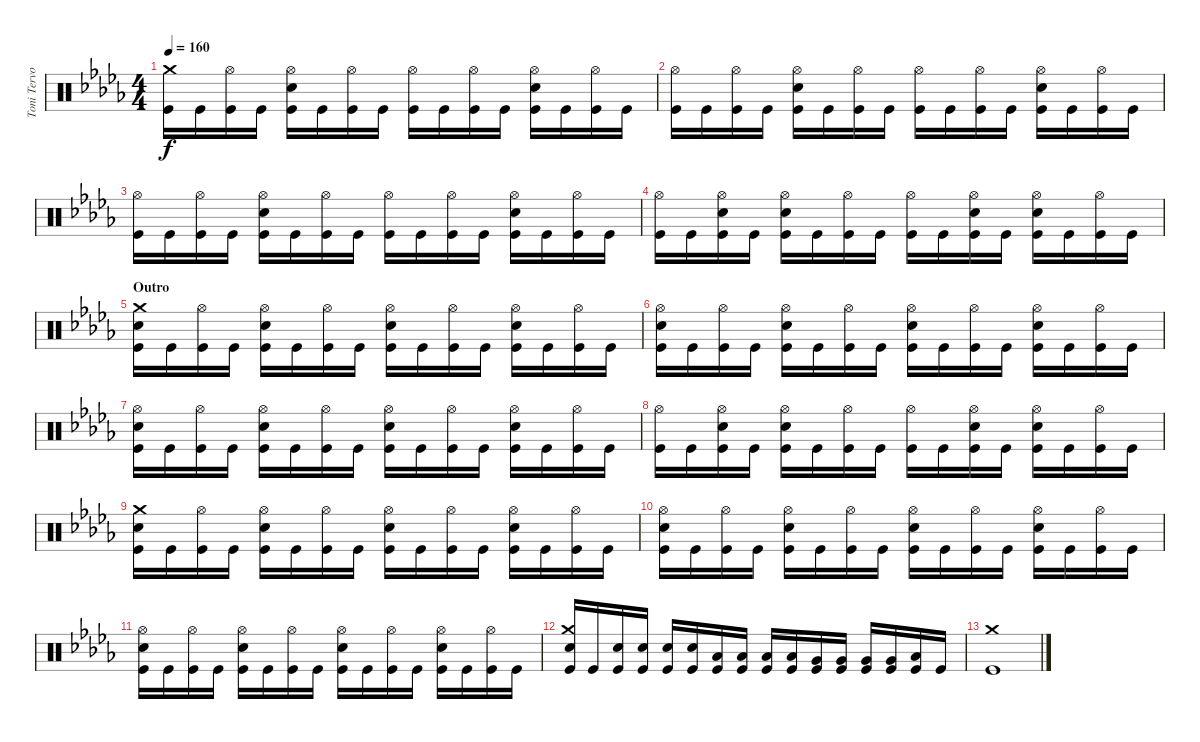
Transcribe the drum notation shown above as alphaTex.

\track ("Toni Tervo (drums)" "Toni Tervo") {instrument percussion}
\staff {score}
\articulation defaults
\ts (4 4)
\tempo 160
\clef neutral
\ks bbminor
("Kick (hit)" "Crash medium (hit)").16{dy f} "Kick (hit)".16 ("Hi-Hat (open)" "Kick (hit)").16 "Kick (hit)".16 ("Hi-Hat (open)" "Kick (hit)" "Snare (hit) 2").16 "Kick (hit)".16 ("Hi-Hat (open)" "Kick (hit)").16 "Kick (hit)".16 ("Hi-Hat (open)" "Kick (hit)").16 "Kick (hit)".16 ("Hi-Hat (open)" "Kick (hit)").16 "Kick (hit)".16 ("Hi-Hat (open)" "Kick (hit)" "Snare (hit) 2").16 "Kick (hit)".16 ("Hi-Hat (open)" "Kick (hit)").16 "Kick (hit)".16 |
("Hi-Hat (open)" "Kick (hit)").16 "Kick (hit)".16 ("Hi-Hat (open)" "Kick (hit)").16 "Kick (hit)".16 ("Hi-Hat (open)" "Kick (hit)" "Snare (hit) 2").16 "Kick (hit)".16 ("Hi-Hat (open)" "Kick (hit)").16 "Kick (hit)".16 ("Hi-Hat (open)" "Kick (hit)").16 "Kick (hit)".16 ("Hi-Hat (open)" "Kick (hit)").16 "Kick (hit)".16 ("Hi-Hat (open)" "Kick (hit)" "Snare (hit) 2").16 "Kick (hit)".16 ("Hi-Hat (open)" "Kick (hit)").16 "Kick (hit)".16 |
("Hi-Hat (open)" "Kick (hit)").16 "Kick (hit)".16 ("Hi-Hat (open)" "Kick (hit)").16 "Kick (hit)".16 ("Hi-Hat (open)" "Kick (hit)" "Snare (hit) 2").16 "Kick (hit)".16 ("Hi-Hat (open)" "Kick (hit)").16 "Kick (hit)".16 ("Hi-Hat (open)" "Kick (hit)").16 "Kick (hit)".16 ("Hi-Hat (open)" "Kick (hit)").16 "Kick (hit)".16 ("Hi-Hat (open)" "Kick (hit)" "Snare (hit) 2").16 "Kick (hit)".16 ("Hi-Hat (open)" "Kick (hit)").16 "Kick (hit)".16 |
("Hi-Hat (open)" "Kick (hit)").16 "Kick (hit)".16 ("Hi-Hat (open)" "Kick (hit)" "Snare (hit) 2").16 "Kick (hit)".16 ("Hi-Hat (open)" "Kick (hit)" "Snare (hit) 2").16 "Kick (hit)".16 ("Hi-Hat (open)" "Kick (hit)").16 "Kick (hit)".16 ("Hi-Hat (open)" "Kick (hit)").16 "Kick (hit)".16 ("Hi-Hat (open)" "Kick (hit)" "Snare (hit) 2").16 "Kick (hit)".16 ("Hi-Hat (open)" "Kick (hit)" "Snare (hit) 2").16 "Kick (hit)".16 ("Hi-Hat (open)" "Kick (hit)").16 "Kick (hit)".16 |
\section ("" "Outro")
("Kick (hit)" "Crash medium (hit)" "Snare (hit) 2").16 "Kick (hit)".16 ("Hi-Hat (open)" "Kick (hit)").16 "Kick (hit)".16 ("Hi-Hat (open)" "Kick (hit)" "Snare (hit) 2").16 "Kick (hit)".16 ("Hi-Hat (open)" "Kick (hit)").16 "Kick (hit)".16 ("Hi-Hat (open)" "Kick (hit)" "Snare (hit) 2").16 "Kick (hit)".16 ("Hi-Hat (open)" "Kick (hit)").16 "Kick (hit)".16 ("Hi-Hat (open)" "Kick (hit)" "Snare (hit) 2").16 "Kick (hit)".16 ("Hi-Hat (open)" "Kick (hit)").16 "Kick (hit)".16 |
("Hi-Hat (open)" "Kick (hit)" "Snare (hit) 2").16 "Kick (hit)".16 ("Hi-Hat (open)" "Kick (hit)").16 "Kick (hit)".16 ("Hi-Hat (open)" "Kick (hit)" "Snare (hit) 2").16 "Kick (hit)".16 ("Hi-Hat (open)" "Kick (hit)").16 "Kick (hit)".16 ("Hi-Hat (open)" "Kick (hit)" "Snare (hit) 2").16 "Kick (hit)".16 ("Hi-Hat (open)" "Kick (hit)").16 "Kick (hit)".16 ("Hi-Hat (open)" "Kick (hit)" "Snare (hit) 2").16 "Kick (hit)".16 ("Hi-Hat (open)" "Kick (hit)").16 "Kick (hit)".16 |
("Hi-Hat (open)" "Kick (hit)" "Snare (hit) 2").16 "Kick (hit)".16 ("Hi-Hat (open)" "Kick (hit)").16 "Kick (hit)".16 ("Hi-Hat (open)" "Kick (hit)" "Snare (hit) 2").16 "Kick (hit)".16 ("Hi-Hat (open)" "Kick (hit)").16 "Kick (hit)".16 ("Hi-Hat (open)" "Kick (hit)" "Snare (hit) 2").16 "Kick (hit)".16 ("Hi-Hat (open)" "Kick (hit)").16 "Kick (hit)".16 ("Hi-Hat (open)" "Kick (hit)" "Snare (hit) 2").16 "Kick (hit)".16 ("Hi-Hat (open)" "Kick (hit)").16 "Kick (hit)".16 |
("Hi-Hat (open)" "Kick (hit)").16 "Kick (hit)".16 ("Hi-Hat (open)" "Kick (hit)" "Snare (hit) 2").16 "Kick (hit)".16 ("Hi-Hat (open)" "Kick (hit)" "Snare (hit) 2").16 "Kick (hit)".16 ("Hi-Hat (open)" "Kick (hit)").16 "Kick (hit)".16 ("Hi-Hat (open)" "Kick (hit)").16 "Kick (hit)".16 ("Hi-Hat (open)" "Kick (hit)" "Snare (hit) 2").16 "Kick (hit)".16 ("Hi-Hat (open)" "Kick (hit)" "Snare (hit) 2").16 "Kick (hit)".16 ("Hi-Hat (open)" "Kick (hit)").16 "Kick (hit)".16 |
("Kick (hit)" "Crash medium (hit)" "Snare (hit) 2").16 "Kick (hit)".16 ("Hi-Hat (open)" "Kick (hit)").16 "Kick (hit)".16 ("Hi-Hat (open)" "Kick (hit)" "Snare (hit) 2").16 "Kick (hit)".16 ("Hi-Hat (open)" "Kick (hit)").16 "Kick (hit)".16 ("Hi-Hat (open)" "Kick (hit)" "Snare (hit) 2").16 "Kick (hit)".16 ("Hi-Hat (open)" "Kick (hit)").16 "Kick (hit)".16 ("Hi-Hat (open)" "Kick (hit)" "Snare (hit) 2").16 "Kick (hit)".16 ("Hi-Hat (open)" "Kick (hit)").16 "Kick (hit)".16 |
("Hi-Hat (open)" "Kick (hit)" "Snare (hit) 2").16 "Kick (hit)".16 ("Hi-Hat (open)" "Kick (hit)").16 "Kick (hit)".16 ("Hi-Hat (open)" "Kick (hit)" "Snare (hit) 2").16 "Kick (hit)".16 ("Hi-Hat (open)" "Kick (hit)").16 "Kick (hit)".16 ("Hi-Hat (open)" "Kick (hit)" "Snare (hit) 2").16 "Kick (hit)".16 ("Hi-Hat (open)" "Kick (hit)").16 "Kick (hit)".16 ("Hi-Hat (open)" "Kick (hit)" "Snare (hit) 2").16 "Kick (hit)".16 ("Hi-Hat (open)" "Kick (hit)").16 "Kick (hit)".16 |
("Hi-Hat (open)" "Kick (hit)" "Snare (hit) 2").16 "Kick (hit)".16 ("Hi-Hat (open)" "Kick (hit)").16 "Kick (hit)".16 ("Hi-Hat (open)" "Kick (hit)" "Snare (hit) 2").16 "Kick (hit)".16 ("Hi-Hat (open)" "Kick (hit)").16 "Kick (hit)".16 ("Hi-Hat (open)" "Kick (hit)" "Snare (hit) 2").16 "Kick (hit)".16 ("Hi-Hat (open)" "Kick (hit)").16 "Kick (hit)".16 ("Hi-Hat (open)" "Kick (hit)" "Snare (hit) 2").16 "Kick (hit)".16 ("Hi-Hat (open)" "Kick (hit)").16 "Kick (hit)".16 |
("Kick (hit)" "Crash medium (hit)" "Snare (hit) 2").16 "Kick (hit)".16 ("Kick (hit)" "Snare (hit) 2").16 ("Kick (hit)" "Snare (hit) 2").16 ("Kick (hit)" "Snare (hit) 2").16 ("Kick (hit)" "Snare (hit) 2").16 ("Kick (hit)" "Low Tom (hit)").16 ("Kick (hit)" "Low Tom (hit)").16 ("Kick (hit)" "Low Tom (hit)").16 ("Kick (hit)" "Low Tom (hit)").16 ("Kick (hit)" "Very Low Tom (hit)").16 ("Kick (hit)" "Very Low Tom (hit)").16 ("Kick (hit)" "Very Low Tom (hit)").16 ("Kick (hit)" "Very Low Tom (hit)").16 ("Kick (hit)" "Low Floor Tom (hit)").16 "Kick (hit)".16 |
("Kick (hit)" "Crash medium (hit)").1
